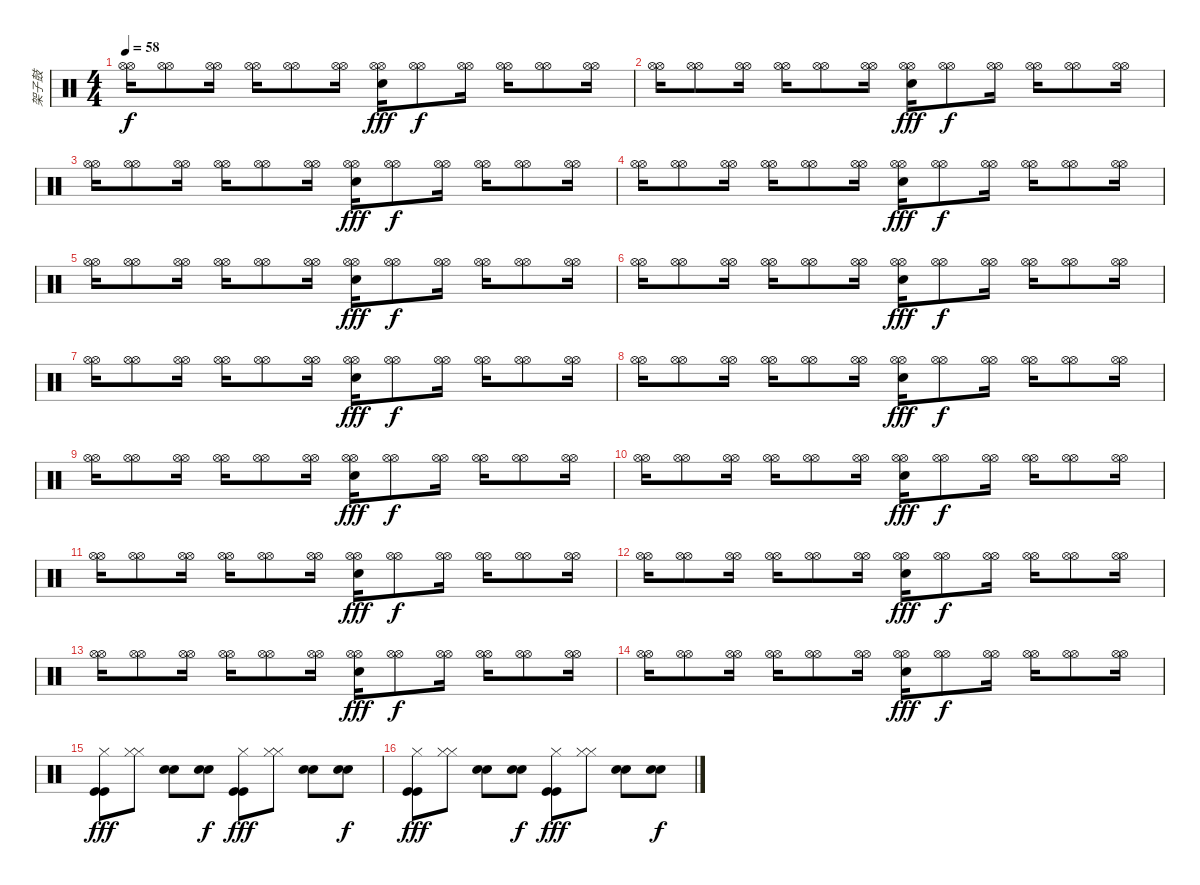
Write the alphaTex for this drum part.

\track ("架子鼓" "架子鼓") {instrument percussion}
\staff {score}
\articulation defaults
\ts (4 4)
\tempo 58
\clef neutral
\ks c
("Hi-Hat (open)" "Hi-Hat (open)").16{dy f} ("Hi-Hat (open)" "Hi-Hat (open)").8 ("Hi-Hat (open)" "Hi-Hat (open)").16 ("Hi-Hat (open)" "Hi-Hat (open)").16 ("Hi-Hat (open)" "Hi-Hat (open)").8 ("Hi-Hat (open)" "Hi-Hat (open)").16 ("Electric Snare (hit)" "Hi-Hat (open)" "Hi-Hat (open)").16{dy fff} ("Hi-Hat (open)" "Hi-Hat (open)").8{dy f} ("Hi-Hat (open)" "Hi-Hat (open)").16 ("Hi-Hat (open)" "Hi-Hat (open)").16 ("Hi-Hat (open)" "Hi-Hat (open)").8 ("Hi-Hat (open)" "Hi-Hat (open)").16 |
("Hi-Hat (open)" "Hi-Hat (open)").16 ("Hi-Hat (open)" "Hi-Hat (open)").8 ("Hi-Hat (open)" "Hi-Hat (open)").16 ("Hi-Hat (open)" "Hi-Hat (open)").16 ("Hi-Hat (open)" "Hi-Hat (open)").8 ("Hi-Hat (open)" "Hi-Hat (open)").16 ("Electric Snare (hit)" "Hi-Hat (open)" "Hi-Hat (open)").16{dy fff} ("Hi-Hat (open)" "Hi-Hat (open)").8{dy f} ("Hi-Hat (open)" "Hi-Hat (open)").16 ("Hi-Hat (open)" "Hi-Hat (open)").16 ("Hi-Hat (open)" "Hi-Hat (open)").8 ("Hi-Hat (open)" "Hi-Hat (open)").16 |
("Hi-Hat (open)" "Hi-Hat (open)").16 ("Hi-Hat (open)" "Hi-Hat (open)").8 ("Hi-Hat (open)" "Hi-Hat (open)").16 ("Hi-Hat (open)" "Hi-Hat (open)").16 ("Hi-Hat (open)" "Hi-Hat (open)").8 ("Hi-Hat (open)" "Hi-Hat (open)").16 ("Electric Snare (hit)" "Hi-Hat (open)" "Hi-Hat (open)").16{dy fff} ("Hi-Hat (open)" "Hi-Hat (open)").8{dy f} ("Hi-Hat (open)" "Hi-Hat (open)").16 ("Hi-Hat (open)" "Hi-Hat (open)").16 ("Hi-Hat (open)" "Hi-Hat (open)").8 ("Hi-Hat (open)" "Hi-Hat (open)").16 |
("Hi-Hat (open)" "Hi-Hat (open)").16 ("Hi-Hat (open)" "Hi-Hat (open)").8 ("Hi-Hat (open)" "Hi-Hat (open)").16 ("Hi-Hat (open)" "Hi-Hat (open)").16 ("Hi-Hat (open)" "Hi-Hat (open)").8 ("Hi-Hat (open)" "Hi-Hat (open)").16 ("Electric Snare (hit)" "Hi-Hat (open)" "Hi-Hat (open)").16{dy fff} ("Hi-Hat (open)" "Hi-Hat (open)").8{dy f} ("Hi-Hat (open)" "Hi-Hat (open)").16 ("Hi-Hat (open)" "Hi-Hat (open)").16 ("Hi-Hat (open)" "Hi-Hat (open)").8 ("Hi-Hat (open)" "Hi-Hat (open)").16 |
("Hi-Hat (open)" "Hi-Hat (open)").16 ("Hi-Hat (open)" "Hi-Hat (open)").8 ("Hi-Hat (open)" "Hi-Hat (open)").16 ("Hi-Hat (open)" "Hi-Hat (open)").16 ("Hi-Hat (open)" "Hi-Hat (open)").8 ("Hi-Hat (open)" "Hi-Hat (open)").16 ("Electric Snare (hit)" "Hi-Hat (open)" "Hi-Hat (open)").16{dy fff} ("Hi-Hat (open)" "Hi-Hat (open)").8{dy f} ("Hi-Hat (open)" "Hi-Hat (open)").16 ("Hi-Hat (open)" "Hi-Hat (open)").16 ("Hi-Hat (open)" "Hi-Hat (open)").8 ("Hi-Hat (open)" "Hi-Hat (open)").16 |
("Hi-Hat (open)" "Hi-Hat (open)").16 ("Hi-Hat (open)" "Hi-Hat (open)").8 ("Hi-Hat (open)" "Hi-Hat (open)").16 ("Hi-Hat (open)" "Hi-Hat (open)").16 ("Hi-Hat (open)" "Hi-Hat (open)").8 ("Hi-Hat (open)" "Hi-Hat (open)").16 ("Electric Snare (hit)" "Hi-Hat (open)" "Hi-Hat (open)").16{dy fff} ("Hi-Hat (open)" "Hi-Hat (open)").8{dy f} ("Hi-Hat (open)" "Hi-Hat (open)").16 ("Hi-Hat (open)" "Hi-Hat (open)").16 ("Hi-Hat (open)" "Hi-Hat (open)").8 ("Hi-Hat (open)" "Hi-Hat (open)").16 |
("Hi-Hat (open)" "Hi-Hat (open)").16 ("Hi-Hat (open)" "Hi-Hat (open)").8 ("Hi-Hat (open)" "Hi-Hat (open)").16 ("Hi-Hat (open)" "Hi-Hat (open)").16 ("Hi-Hat (open)" "Hi-Hat (open)").8 ("Hi-Hat (open)" "Hi-Hat (open)").16 ("Electric Snare (hit)" "Hi-Hat (open)" "Hi-Hat (open)").16{dy fff} ("Hi-Hat (open)" "Hi-Hat (open)").8{dy f} ("Hi-Hat (open)" "Hi-Hat (open)").16 ("Hi-Hat (open)" "Hi-Hat (open)").16 ("Hi-Hat (open)" "Hi-Hat (open)").8 ("Hi-Hat (open)" "Hi-Hat (open)").16 |
("Hi-Hat (open)" "Hi-Hat (open)").16 ("Hi-Hat (open)" "Hi-Hat (open)").8 ("Hi-Hat (open)" "Hi-Hat (open)").16 ("Hi-Hat (open)" "Hi-Hat (open)").16 ("Hi-Hat (open)" "Hi-Hat (open)").8 ("Hi-Hat (open)" "Hi-Hat (open)").16 ("Electric Snare (hit)" "Hi-Hat (open)" "Hi-Hat (open)").16{dy fff} ("Hi-Hat (open)" "Hi-Hat (open)").8{dy f} ("Hi-Hat (open)" "Hi-Hat (open)").16 ("Hi-Hat (open)" "Hi-Hat (open)").16 ("Hi-Hat (open)" "Hi-Hat (open)").8 ("Hi-Hat (open)" "Hi-Hat (open)").16 |
("Hi-Hat (open)" "Hi-Hat (open)").16 ("Hi-Hat (open)" "Hi-Hat (open)").8 ("Hi-Hat (open)" "Hi-Hat (open)").16 ("Hi-Hat (open)" "Hi-Hat (open)").16 ("Hi-Hat (open)" "Hi-Hat (open)").8 ("Hi-Hat (open)" "Hi-Hat (open)").16 ("Electric Snare (hit)" "Hi-Hat (open)" "Hi-Hat (open)").16{dy fff} ("Hi-Hat (open)" "Hi-Hat (open)").8{dy f} ("Hi-Hat (open)" "Hi-Hat (open)").16 ("Hi-Hat (open)" "Hi-Hat (open)").16 ("Hi-Hat (open)" "Hi-Hat (open)").8 ("Hi-Hat (open)" "Hi-Hat (open)").16 |
("Hi-Hat (open)" "Hi-Hat (open)").16 ("Hi-Hat (open)" "Hi-Hat (open)").8 ("Hi-Hat (open)" "Hi-Hat (open)").16 ("Hi-Hat (open)" "Hi-Hat (open)").16 ("Hi-Hat (open)" "Hi-Hat (open)").8 ("Hi-Hat (open)" "Hi-Hat (open)").16 ("Electric Snare (hit)" "Hi-Hat (open)" "Hi-Hat (open)").16{dy fff} ("Hi-Hat (open)" "Hi-Hat (open)").8{dy f} ("Hi-Hat (open)" "Hi-Hat (open)").16 ("Hi-Hat (open)" "Hi-Hat (open)").16 ("Hi-Hat (open)" "Hi-Hat (open)").8 ("Hi-Hat (open)" "Hi-Hat (open)").16 |
("Hi-Hat (open)" "Hi-Hat (open)").16 ("Hi-Hat (open)" "Hi-Hat (open)").8 ("Hi-Hat (open)" "Hi-Hat (open)").16 ("Hi-Hat (open)" "Hi-Hat (open)").16 ("Hi-Hat (open)" "Hi-Hat (open)").8 ("Hi-Hat (open)" "Hi-Hat (open)").16 ("Electric Snare (hit)" "Hi-Hat (open)" "Hi-Hat (open)").16{dy fff} ("Hi-Hat (open)" "Hi-Hat (open)").8{dy f} ("Hi-Hat (open)" "Hi-Hat (open)").16 ("Hi-Hat (open)" "Hi-Hat (open)").16 ("Hi-Hat (open)" "Hi-Hat (open)").8 ("Hi-Hat (open)" "Hi-Hat (open)").16 |
("Hi-Hat (open)" "Hi-Hat (open)").16 ("Hi-Hat (open)" "Hi-Hat (open)").8 ("Hi-Hat (open)" "Hi-Hat (open)").16 ("Hi-Hat (open)" "Hi-Hat (open)").16 ("Hi-Hat (open)" "Hi-Hat (open)").8 ("Hi-Hat (open)" "Hi-Hat (open)").16 ("Electric Snare (hit)" "Hi-Hat (open)" "Hi-Hat (open)").16{dy fff} ("Hi-Hat (open)" "Hi-Hat (open)").8{dy f} ("Hi-Hat (open)" "Hi-Hat (open)").16 ("Hi-Hat (open)" "Hi-Hat (open)").16 ("Hi-Hat (open)" "Hi-Hat (open)").8 ("Hi-Hat (open)" "Hi-Hat (open)").16 |
("Hi-Hat (open)" "Hi-Hat (open)").16 ("Hi-Hat (open)" "Hi-Hat (open)").8 ("Hi-Hat (open)" "Hi-Hat (open)").16 ("Hi-Hat (open)" "Hi-Hat (open)").16 ("Hi-Hat (open)" "Hi-Hat (open)").8 ("Hi-Hat (open)" "Hi-Hat (open)").16 ("Electric Snare (hit)" "Hi-Hat (open)" "Hi-Hat (open)").16{dy fff} ("Hi-Hat (open)" "Hi-Hat (open)").8{dy f} ("Hi-Hat (open)" "Hi-Hat (open)").16 ("Hi-Hat (open)" "Hi-Hat (open)").16 ("Hi-Hat (open)" "Hi-Hat (open)").8 ("Hi-Hat (open)" "Hi-Hat (open)").16 |
("Hi-Hat (open)" "Hi-Hat (open)").16 ("Hi-Hat (open)" "Hi-Hat (open)").8 ("Hi-Hat (open)" "Hi-Hat (open)").16 ("Hi-Hat (open)" "Hi-Hat (open)").16 ("Hi-Hat (open)" "Hi-Hat (open)").8 ("Hi-Hat (open)" "Hi-Hat (open)").16 ("Electric Snare (hit)" "Hi-Hat (open)" "Hi-Hat (open)").16{dy fff} ("Hi-Hat (open)" "Hi-Hat (open)").8{dy f} ("Hi-Hat (open)" "Hi-Hat (open)").16 ("Hi-Hat (open)" "Hi-Hat (open)").16 ("Hi-Hat (open)" "Hi-Hat (open)").8 ("Hi-Hat (open)" "Hi-Hat (open)").16 |
("Kick (hit)" "Kick (hit)" "Hi-Hat (closed)").8{dy fff} ("Hi-Hat (closed)" "Hi-Hat (closed)").8 ("Snare (hit) 2" "Snare (hit) 2").8 ("Snare (hit) 2" "Snare (hit) 2").8{dy f} ("Kick (hit)" "Kick (hit)" "Hi-Hat (closed)").8{dy fff} ("Hi-Hat (closed)" "Hi-Hat (closed)").8 ("Snare (hit) 2" "Snare (hit) 2").8 ("Snare (hit) 2" "Snare (hit) 2").8{dy f} |
("Kick (hit)" "Kick (hit)" "Hi-Hat (closed)").8{dy fff} ("Hi-Hat (closed)" "Hi-Hat (closed)").8 ("Snare (hit) 2" "Snare (hit) 2").8 ("Snare (hit) 2" "Snare (hit) 2").8{dy f} ("Kick (hit)" "Kick (hit)" "Hi-Hat (closed)").8{dy fff} ("Hi-Hat (closed)" "Hi-Hat (closed)").8 ("Snare (hit) 2" "Snare (hit) 2").8 ("Snare (hit) 2" "Snare (hit) 2").8{dy f}
